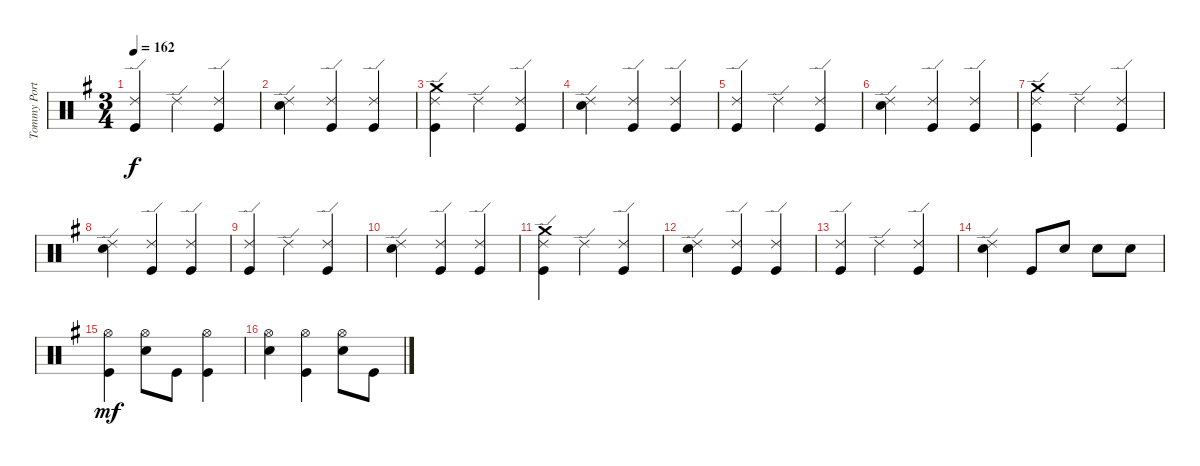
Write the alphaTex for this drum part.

\track ("Tommy Portimo (Drums)" "Tommy Port") {instrument percussion}
\staff {score}
\articulation defaults
\ts (3 4)
\tempo 162
\clef neutral
\ks g
("Kick (hit)" "Ride (edge) 2").4{dy f} "Ride (edge) 2".4 ("Kick (hit)" "Ride (edge) 2").4 |
("Electric Snare (hit)" "Ride (edge) 2").4 ("Kick (hit)" "Ride (edge) 2").4 ("Kick (hit)" "Ride (edge) 2").4 |
("Kick (hit)" "Ride (edge) 2" "Crash medium (hit)").4 "Ride (edge) 2".4 ("Kick (hit)" "Ride (edge) 2").4 |
("Electric Snare (hit)" "Ride (edge) 2").4 ("Kick (hit)" "Ride (edge) 2").4 ("Kick (hit)" "Ride (edge) 2").4 |
("Kick (hit)" "Ride (edge) 2").4 "Ride (edge) 2".4 ("Kick (hit)" "Ride (edge) 2").4 |
("Electric Snare (hit)" "Ride (edge) 2").4 ("Kick (hit)" "Ride (edge) 2").4 ("Kick (hit)" "Ride (edge) 2").4 |
("Kick (hit)" "Ride (edge) 2" "Crash medium (hit)").4 "Ride (edge) 2".4 ("Kick (hit)" "Ride (edge) 2").4 |
("Electric Snare (hit)" "Ride (edge) 2").4 ("Kick (hit)" "Ride (edge) 2").4 ("Kick (hit)" "Ride (edge) 2").4 |
("Kick (hit)" "Ride (edge) 2").4 "Ride (edge) 2".4 ("Kick (hit)" "Ride (edge) 2").4 |
("Electric Snare (hit)" "Ride (edge) 2").4 ("Kick (hit)" "Ride (edge) 2").4 ("Kick (hit)" "Ride (edge) 2").4 |
("Kick (hit)" "Ride (edge) 2" "Crash medium (hit)").4 "Ride (edge) 2".4 ("Kick (hit)" "Ride (edge) 2").4 |
("Electric Snare (hit)" "Ride (edge) 2").4 ("Kick (hit)" "Ride (edge) 2").4 ("Kick (hit)" "Ride (edge) 2").4 |
("Kick (hit)" "Ride (edge) 2").4 "Ride (edge) 2".4 ("Kick (hit)" "Ride (edge) 2").4 |
("Electric Snare (hit)" "Ride (edge) 2").4 "Kick (hit)".8 "Electric Snare (hit)".8 "Electric Snare (hit)".8 "Electric Snare (hit)".8 |
("Kick (hit)" "Hi-Hat (open)").4{dy mf} ("Electric Snare (hit)" "Hi-Hat (open)").8 "Kick (hit)".8 ("Kick (hit)" "Hi-Hat (open)").4 |
("Electric Snare (hit)" "Hi-Hat (open)").4 ("Kick (hit)" "Hi-Hat (open)").4 ("Electric Snare (hit)" "Hi-Hat (open)").8 "Kick (hit)".8
